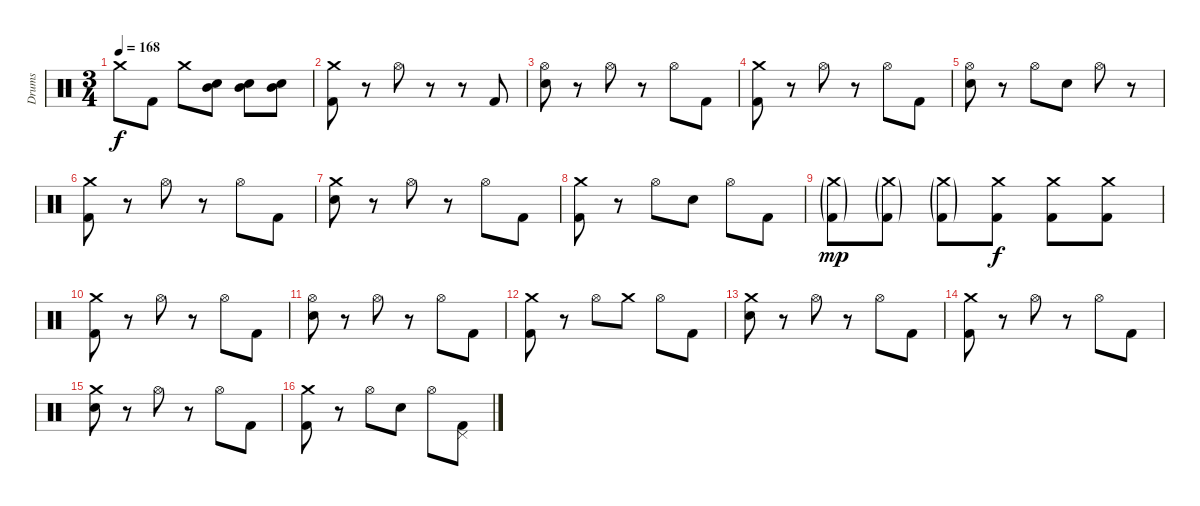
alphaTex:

\track ("Drums" "Drums") {instrument percussion}
\staff {score}
\articulation defaults
\ts (3 4)
\tempo 168
\clef neutral
\ks c "Crash medium (hit)".8{dy f} "Kick (hit) 2".8 "Crash medium (hit)".8
("Mid Tom (hit)" "Electric Snare (hit)").8 ("Mid Tom (hit)" "Electric Snare (hit)").8 ("Mid Tom (hit)" "Electric Snare (hit)").8 |
("Crash medium (hit)" "Kick (hit) 2").8 r.8 "Hi-Hat (open)".8 r.8 r.8 "Kick (hit) 2".8 |
("Hi-Hat (open)" "Electric Snare (hit)").8 r.8 "Hi-Hat (open)".8 r.8 "Hi-Hat (open)".8 "Kick (hit) 2".8 |
("Crash medium (hit)" "Kick (hit) 2").8 r.8 "Hi-Hat (open)".8 r.8 "Hi-Hat (open)".8 "Kick (hit) 2".8 |
("Hi-Hat (open)" "Electric Snare (hit)").8 r.8 "Hi-Hat (open)".8 "Electric Snare (hit)".8 "Hi-Hat (open)".8 r.8 |
("Crash medium (hit)" "Kick (hit) 2").8 r.8 "Hi-Hat (open)".8 r.8 "Hi-Hat (open)".8 "Kick (hit) 2".8 |
("Crash medium (hit)" "Electric Snare (hit)").8 r.8 "Hi-Hat (open)".8 r.8 "Hi-Hat (open)".8 "Kick (hit) 2".8 |
("Crash medium (hit)" "Kick (hit) 2").8 r.8 "Hi-Hat (open)".8 "Electric Snare (hit)".8 "Hi-Hat (open)".8 "Kick (hit) 2".8 |
("Crash medium (hit)"{g} "Kick (hit) 2"{g}).8{dy mp} ("Crash medium (hit)"{g} "Kick (hit) 2"{g}).8 ("Crash medium (hit)"{g} "Kick (hit) 2"{g}).8 ("Crash medium (hit)" "Kick (hit) 2").8{dy f} ("Crash medium (hit)" "Kick (hit) 2").8 ("Crash medium (hit)" "Kick (hit) 2").8 |
("Crash medium (hit)" "Kick (hit) 2").8 r.8 "Hi-Hat (open)".8 r.8 "Hi-Hat (open)".8 "Kick (hit) 2".8 |
("Hi-Hat (open)" "Electric Snare (hit)").8 r.8 "Hi-Hat (open)".8 r.8 "Hi-Hat (open)".8 "Kick (hit) 2".8 |
("Crash medium (hit)" "Kick (hit) 2").8 r.8 "Hi-Hat (open)".8 "Crash medium (hit)".8 "Hi-Hat (open)".8 "Kick (hit) 2".8 |
("Crash medium (hit)" "Electric Snare (hit)").8 r.8 "Hi-Hat (open)".8 r.8 "Hi-Hat (open)".8 "Kick (hit) 2".8 |
("Crash medium (hit)" "Kick (hit) 2").8 r.8 "Hi-Hat (open)".8 r.8 "Hi-Hat (open)".8 "Kick (hit) 2".8 |
("Crash medium (hit)" "Electric Snare (hit)").8 r.8 "Hi-Hat (open)".8 r.8 "Hi-Hat (open)".8 "Kick (hit) 2".8 |
("Crash medium (hit)" "Kick (hit) 2").8 r.8 "Hi-Hat (open)".8 "Electric Snare (hit)".8 "Hi-Hat (open)".8 ("Pedal Hi-Hat (hit)" "Kick (hit) 2").8
